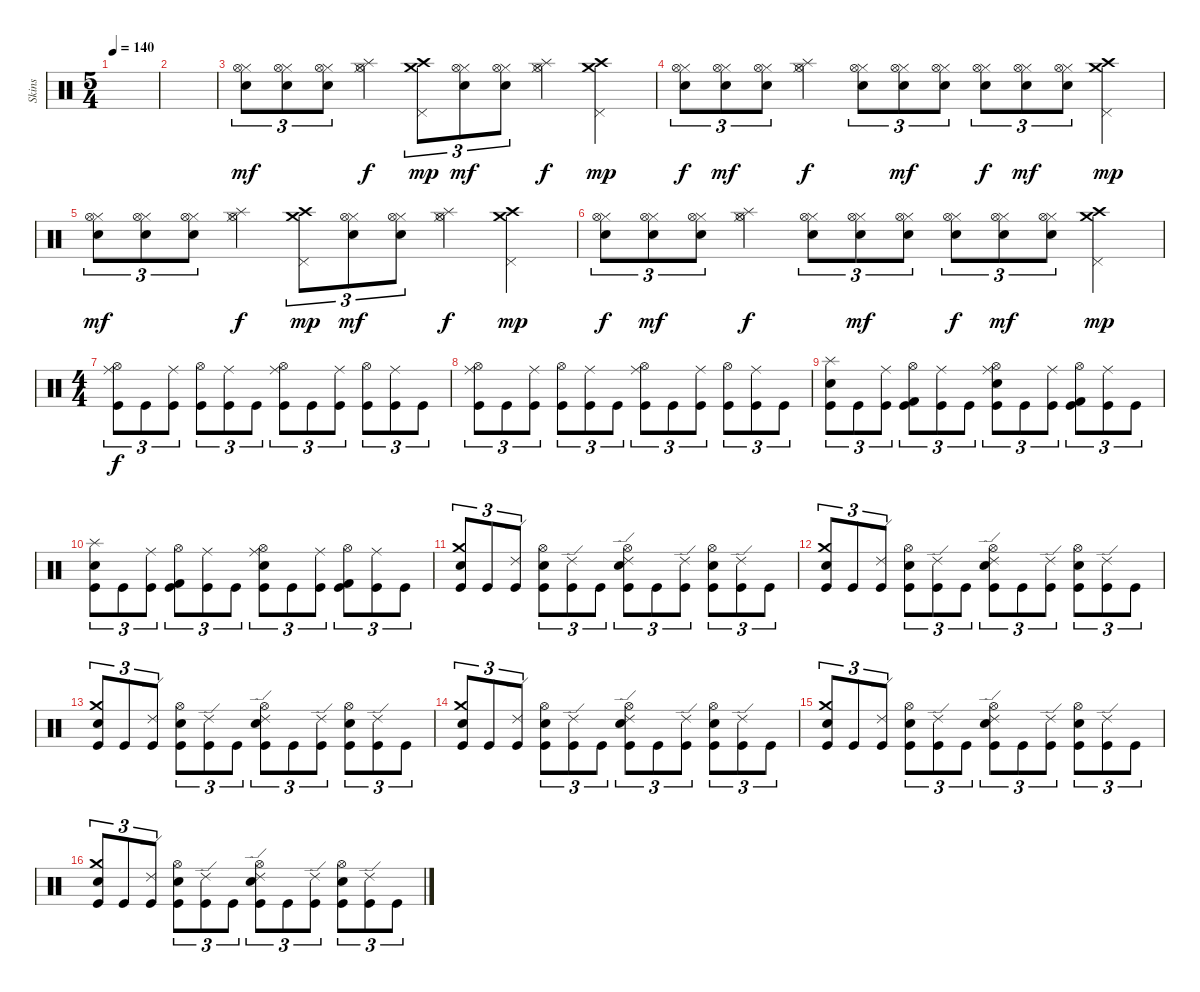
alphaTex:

\track ("Skins" "Skins") {instrument percussion}
\staff {score}
\articulation defaults
\ts (5 4)
\tempo 140
\clef neutral
\ks c
|
|
("Hi-Hat (closed)" "Hi-Hat (open)" "Electric Snare (hit)").8{tu (3 2) dy mf} ("Hi-Hat (closed)" "Hi-Hat (open)" "Electric Snare (hit)").8{tu (3 2)} ("Hi-Hat (closed)" "Hi-Hat (open)" "Electric Snare (hit)").8{tu (3 2)} ("Hi-Hat (closed)" "Hi-Hat (open)" "Splash (hit)").4{dy f} ("Pedal Hi-Hat (hit)" "Crash high (hit)" "Crash medium (hit)").8{tu (3 2) dy mp} ("Hi-Hat (closed)" "Hi-Hat (open)" "Electric Snare (hit)").8{tu (3 2) dy mf} ("Hi-Hat (closed)" "Hi-Hat (open)" "Electric Snare (hit)").8{tu (3 2)} ("Hi-Hat (closed)" "Hi-Hat (open)" "Splash (hit)").4{dy f} ("Pedal Hi-Hat (hit)" "Crash high (hit)" "Crash medium (hit)").4{dy mp} |
("Hi-Hat (closed)" "Hi-Hat (open)" "Electric Snare (hit)").8{tu (3 2) dy f} ("Hi-Hat (closed)" "Hi-Hat (open)" "Electric Snare (hit)").8{tu (3 2) dy mf} ("Hi-Hat (closed)" "Hi-Hat (open)" "Electric Snare (hit)").8{tu (3 2)} ("Hi-Hat (closed)" "Hi-Hat (open)" "Splash (hit)").4{dy f} ("Hi-Hat (closed)" "Hi-Hat (open)" "Electric Snare (hit)").8{tu (3 2)} ("Hi-Hat (closed)" "Hi-Hat (open)" "Electric Snare (hit)").8{tu (3 2) dy mf} ("Hi-Hat (closed)" "Hi-Hat (open)" "Electric Snare (hit)").8{tu (3 2)} ("Hi-Hat (closed)" "Hi-Hat (open)" "Electric Snare (hit)").8{tu (3 2) dy f} ("Hi-Hat (closed)" "Hi-Hat (open)" "Electric Snare (hit)").8{tu (3 2) dy mf} ("Hi-Hat (closed)" "Hi-Hat (open)" "Electric Snare (hit)").8{tu (3 2)} ("Pedal Hi-Hat (hit)" "Crash high (hit)" "Crash medium (hit)").4{dy mp} |
("Hi-Hat (closed)" "Hi-Hat (open)" "Electric Snare (hit)").8{tu (3 2) dy mf} ("Hi-Hat (closed)" "Hi-Hat (open)" "Electric Snare (hit)").8{tu (3 2)} ("Hi-Hat (closed)" "Hi-Hat (open)" "Electric Snare (hit)").8{tu (3 2)} ("Hi-Hat (closed)" "Hi-Hat (open)" "Splash (hit)").4{dy f} ("Pedal Hi-Hat (hit)" "Crash high (hit)" "Crash medium (hit)").8{tu (3 2) dy mp} ("Hi-Hat (closed)" "Hi-Hat (open)" "Electric Snare (hit)").8{tu (3 2) dy mf} ("Hi-Hat (closed)" "Hi-Hat (open)" "Electric Snare (hit)").8{tu (3 2)} ("Hi-Hat (closed)" "Hi-Hat (open)" "Splash (hit)").4{dy f} ("Pedal Hi-Hat (hit)" "Crash high (hit)" "Crash medium (hit)").4{dy mp} |
("Hi-Hat (closed)" "Hi-Hat (open)" "Electric Snare (hit)").8{tu (3 2) dy f} ("Hi-Hat (closed)" "Hi-Hat (open)" "Electric Snare (hit)").8{tu (3 2) dy mf} ("Hi-Hat (closed)" "Hi-Hat (open)" "Electric Snare (hit)").8{tu (3 2)} ("Hi-Hat (closed)" "Hi-Hat (open)" "Splash (hit)").4{dy f} ("Hi-Hat (closed)" "Hi-Hat (open)" "Electric Snare (hit)").8{tu (3 2)} ("Hi-Hat (closed)" "Hi-Hat (open)" "Electric Snare (hit)").8{tu (3 2) dy mf} ("Hi-Hat (closed)" "Hi-Hat (open)" "Electric Snare (hit)").8{tu (3 2)} ("Hi-Hat (closed)" "Hi-Hat (open)" "Electric Snare (hit)").8{tu (3 2) dy f} ("Hi-Hat (closed)" "Hi-Hat (open)" "Electric Snare (hit)").8{tu (3 2) dy mf} ("Hi-Hat (closed)" "Hi-Hat (open)" "Electric Snare (hit)").8{tu (3 2)} ("Pedal Hi-Hat (hit)" "Crash high (hit)" "Crash medium (hit)").4{dy mp} |
\ts (4 4)
("Ride (middle)" "Hi-Hat (open)" "Kick (hit)").8{tu (3 2) dy f} "Kick (hit)".8{tu (3 2)} ("Ride (middle)" "Kick (hit)").8{tu (3 2)} ("Hi-Hat (open)" "Kick (hit)").8{tu (3 2)} ("Ride (middle)" "Kick (hit)").8{tu (3 2)} "Kick (hit)".8{tu (3 2)} ("Ride (middle)" "Hi-Hat (open)" "Kick (hit)").8{tu (3 2)} "Kick (hit)".8{tu (3 2)} ("Ride (middle)" "Kick (hit)").8{tu (3 2)} ("Hi-Hat (open)" "Kick (hit)").8{tu (3 2)} ("Ride (middle)" "Kick (hit)").8{tu (3 2)} "Kick (hit)".8{tu (3 2)} |
("Ride (middle)" "Hi-Hat (open)" "Kick (hit)").8{tu (3 2)} "Kick (hit)".8{tu (3 2)} ("Ride (middle)" "Kick (hit)").8{tu (3 2)} ("Hi-Hat (open)" "Kick (hit)").8{tu (3 2)} ("Ride (middle)" "Kick (hit)").8{tu (3 2)} "Kick (hit)".8{tu (3 2)} ("Ride (middle)" "Hi-Hat (open)" "Kick (hit)").8{tu (3 2)} "Kick (hit)".8{tu (3 2)} ("Ride (middle)" "Kick (hit)").8{tu (3 2)} ("Hi-Hat (open)" "Kick (hit)").8{tu (3 2)} ("Ride (middle)" "Kick (hit)").8{tu (3 2)} "Kick (hit)".8{tu (3 2)} |
("Splash (hit)" "Snare (hit) 2" "Kick (hit)").8{tu (3 2)} "Kick (hit)".8{tu (3 2)} ("Ride (middle)" "Kick (hit)").8{tu (3 2)} ("Hi-Hat (open)" "Kick (hit) 2" "Kick (hit)").8{tu (3 2)} ("Ride (middle)" "Kick (hit)").8{tu (3 2)} "Kick (hit)".8{tu (3 2)} ("Ride (middle)" "Hi-Hat (open)" "Snare (hit) 2" "Kick (hit)").8{tu (3 2)} "Kick (hit)".8{tu (3 2)} ("Ride (middle)" "Kick (hit)").8{tu (3 2)} ("Hi-Hat (open)" "Kick (hit) 2" "Kick (hit)").8{tu (3 2)} ("Ride (middle)" "Kick (hit)").8{tu (3 2)} "Kick (hit)".8{tu (3 2)} |
("Splash (hit)" "Snare (hit) 2" "Kick (hit)").8{tu (3 2)} "Kick (hit)".8{tu (3 2)} ("Ride (middle)" "Kick (hit)").8{tu (3 2)} ("Hi-Hat (open)" "Kick (hit) 2" "Kick (hit)").8{tu (3 2)} ("Ride (middle)" "Kick (hit)").8{tu (3 2)} "Kick (hit)".8{tu (3 2)} ("Ride (middle)" "Hi-Hat (open)" "Snare (hit) 2" "Kick (hit)").8{tu (3 2)} "Kick (hit)".8{tu (3 2)} ("Ride (middle)" "Kick (hit)").8{tu (3 2)} ("Hi-Hat (open)" "Kick (hit) 2" "Kick (hit)").8{tu (3 2)} ("Ride (middle)" "Kick (hit)").8{tu (3 2)} "Kick (hit)".8{tu (3 2)} |
("Crash medium (hit)" "Electric Snare (hit)" "Kick (hit)").8{tu (3 2)} "Kick (hit)".8{tu (3 2)} ("Ride (edge) 2" "Kick (hit)").8{tu (3 2)} ("Hi-Hat (open)" "Electric Snare (hit)" "Kick (hit)").8{tu (3 2)} ("Ride (edge) 2" "Kick (hit)").8{tu (3 2)} "Kick (hit)".8{tu (3 2)} ("Ride (edge) 2" "Hi-Hat (open)" "Electric Snare (hit)" "Kick (hit)").8{tu (3 2)} "Kick (hit)".8{tu (3 2)} ("Ride (edge) 2" "Kick (hit)").8{tu (3 2)} ("Hi-Hat (open)" "Electric Snare (hit)" "Kick (hit)").8{tu (3 2)} ("Ride (edge) 2" "Kick (hit)").8{tu (3 2)} "Kick (hit)".8{tu (3 2)} |
("Crash medium (hit)" "Electric Snare (hit)" "Kick (hit)").8{tu (3 2)} "Kick (hit)".8{tu (3 2)} ("Ride (edge) 2" "Kick (hit)").8{tu (3 2)} ("Hi-Hat (open)" "Electric Snare (hit)" "Kick (hit)").8{tu (3 2)} ("Ride (edge) 2" "Kick (hit)").8{tu (3 2)} "Kick (hit)".8{tu (3 2)} ("Ride (edge) 2" "Hi-Hat (open)" "Electric Snare (hit)" "Kick (hit)").8{tu (3 2)} "Kick (hit)".8{tu (3 2)} ("Ride (edge) 2" "Kick (hit)").8{tu (3 2)} ("Hi-Hat (open)" "Electric Snare (hit)" "Kick (hit)").8{tu (3 2)} ("Ride (edge) 2" "Kick (hit)").8{tu (3 2)} "Kick (hit)".8{tu (3 2)} |
("Crash medium (hit)" "Electric Snare (hit)" "Kick (hit)").8{tu (3 2)} "Kick (hit)".8{tu (3 2)} ("Ride (edge) 2" "Kick (hit)").8{tu (3 2)} ("Hi-Hat (open)" "Electric Snare (hit)" "Kick (hit)").8{tu (3 2)} ("Ride (edge) 2" "Kick (hit)").8{tu (3 2)} "Kick (hit)".8{tu (3 2)} ("Ride (edge) 2" "Hi-Hat (open)" "Electric Snare (hit)" "Kick (hit)").8{tu (3 2)} "Kick (hit)".8{tu (3 2)} ("Ride (edge) 2" "Kick (hit)").8{tu (3 2)} ("Hi-Hat (open)" "Electric Snare (hit)" "Kick (hit)").8{tu (3 2)} ("Ride (edge) 2" "Kick (hit)").8{tu (3 2)} "Kick (hit)".8{tu (3 2)} |
("Crash medium (hit)" "Electric Snare (hit)" "Kick (hit)").8{tu (3 2)} "Kick (hit)".8{tu (3 2)} ("Ride (edge) 2" "Kick (hit)").8{tu (3 2)} ("Hi-Hat (open)" "Electric Snare (hit)" "Kick (hit)").8{tu (3 2)} ("Ride (edge) 2" "Kick (hit)").8{tu (3 2)} "Kick (hit)".8{tu (3 2)} ("Ride (edge) 2" "Hi-Hat (open)" "Electric Snare (hit)" "Kick (hit)").8{tu (3 2)} "Kick (hit)".8{tu (3 2)} ("Ride (edge) 2" "Kick (hit)").8{tu (3 2)} ("Hi-Hat (open)" "Electric Snare (hit)" "Kick (hit)").8{tu (3 2)} ("Ride (edge) 2" "Kick (hit)").8{tu (3 2)} "Kick (hit)".8{tu (3 2)} |
("Crash medium (hit)" "Electric Snare (hit)" "Kick (hit)").8{tu (3 2)} "Kick (hit)".8{tu (3 2)} ("Ride (edge) 2" "Kick (hit)").8{tu (3 2)} ("Hi-Hat (open)" "Electric Snare (hit)" "Kick (hit)").8{tu (3 2)} ("Ride (edge) 2" "Kick (hit)").8{tu (3 2)} "Kick (hit)".8{tu (3 2)} ("Ride (edge) 2" "Hi-Hat (open)" "Electric Snare (hit)" "Kick (hit)").8{tu (3 2)} "Kick (hit)".8{tu (3 2)} ("Ride (edge) 2" "Kick (hit)").8{tu (3 2)} ("Hi-Hat (open)" "Electric Snare (hit)" "Kick (hit)").8{tu (3 2)} ("Ride (edge) 2" "Kick (hit)").8{tu (3 2)} "Kick (hit)".8{tu (3 2)} |
("Crash medium (hit)" "Electric Snare (hit)" "Kick (hit)").8{tu (3 2)} "Kick (hit)".8{tu (3 2)} ("Ride (edge) 2" "Kick (hit)").8{tu (3 2)} ("Hi-Hat (open)" "Electric Snare (hit)" "Kick (hit)").8{tu (3 2)} ("Ride (edge) 2" "Kick (hit)").8{tu (3 2)} "Kick (hit)".8{tu (3 2)} ("Ride (edge) 2" "Hi-Hat (open)" "Electric Snare (hit)" "Kick (hit)").8{tu (3 2)} "Kick (hit)".8{tu (3 2)} ("Ride (edge) 2" "Kick (hit)").8{tu (3 2)} ("Hi-Hat (open)" "Electric Snare (hit)" "Kick (hit)").8{tu (3 2)} ("Ride (edge) 2" "Kick (hit)").8{tu (3 2)} "Kick (hit)".8{tu (3 2)}
